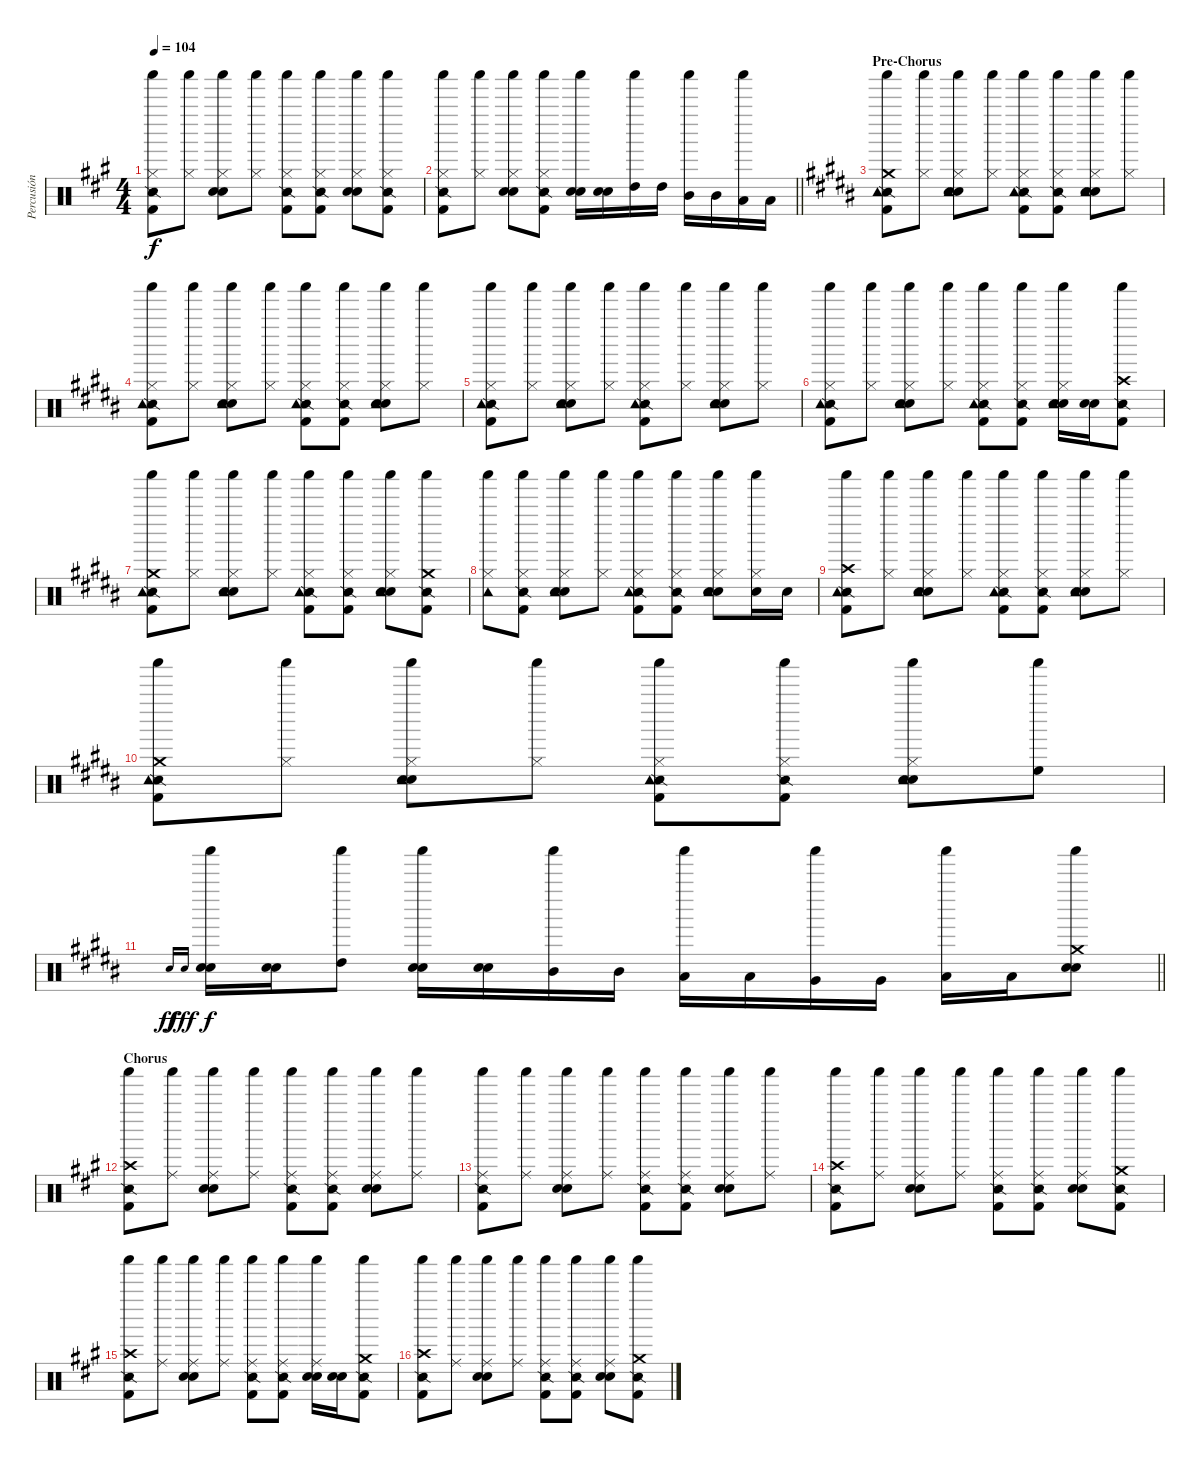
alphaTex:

\track ("Percusión" "Percusión") {instrument percussion}
\staff {score}
\articulation defaults
\ts (4 4)
\tempo 104
\clef neutral
\ks a
("Hi-Hat (closed)" "Kick (hit) 2" "Snare (side stick) 2" "Shaker (hit)").8{dy f} ("Hi-Hat (closed)" "Shaker (hit)").8 ("Hi-Hat (closed)" "Snare (hit) 2" "Electric Snare (hit)" "Shaker (hit)").8 ("Hi-Hat (closed)" "Shaker (hit)").8 ("Hi-Hat (closed)" "Kick (hit) 2" "Snare (side stick) 2" "Shaker (hit)").8 ("Hi-Hat (closed)" "Kick (hit) 2" "Snare (side stick) 2" "Shaker (hit)").8 ("Hi-Hat (closed)" "Snare (hit) 2" "Electric Snare (hit)" "Shaker (hit)").8 ("Hi-Hat (closed)" "Kick (hit) 2" "Snare (side stick) 2" "Shaker (hit)").8 |
\barLineRight lightlight
("Hi-Hat (closed)" "Kick (hit) 2" "Snare (side stick) 2" "Shaker (hit)").8 ("Hi-Hat (closed)" "Shaker (hit)").8 ("Hi-Hat (closed)" "Snare (hit) 2" "Electric Snare (hit)" "Shaker (hit)").8 ("Hi-Hat (closed)" "Kick (hit) 2" "Snare (side stick) 2" "Shaker (hit)").8 ("Snare (hit) 2" "Electric Snare (hit)" "Shaker (hit)").16 ("Snare (hit) 2" "Electric Snare (hit)").16 ("High Tom (hit)" "Shaker (hit)").16 "High Tom (hit)".16 ("Mid Tom (hit)" "Shaker (hit)").16 "Mid Tom (hit)".16 ("Low Tom (hit)" "Shaker (hit)").16 "Low Tom (hit)".16 |
\section ("" "Pre-Chorus")
\ks b
("Crash medium (hit)" "Kick (hit) 2" "Snare (side stick) 2" "Tambourine (hit)" "Shaker (hit)").8 ("Hi-Hat (closed)" "Shaker (hit)").8 ("Hi-Hat (closed)" "Snare (hit) 2" "Electric Snare (hit)" "Tambourine (hit)" "Shaker (hit)").8 ("Hi-Hat (closed)" "Shaker (hit)").8 ("Hi-Hat (closed)" "Kick (hit) 2" "Snare (side stick) 2" "Tambourine (hit)" "Shaker (hit)").8 ("Hi-Hat (closed)" "Kick (hit) 2" "Snare (side stick) 2" "Shaker (hit)").8 ("Hi-Hat (closed)" "Snare (hit) 2" "Electric Snare (hit)" "Tambourine (hit)" "Shaker (hit)").8 ("Hi-Hat (closed)" "Shaker (hit)").8 |
\ks g#minor
("Hi-Hat (closed)" "Kick (hit) 2" "Snare (side stick) 2" "Tambourine (hit)" "Shaker (hit)").8 ("Hi-Hat (closed)" "Shaker (hit)").8 ("Hi-Hat (closed)" "Snare (hit) 2" "Electric Snare (hit)" "Tambourine (hit)" "Shaker (hit)").8 ("Hi-Hat (closed)" "Shaker (hit)").8 ("Hi-Hat (closed)" "Kick (hit) 2" "Snare (side stick) 2" "Tambourine (hit)" "Shaker (hit)").8 ("Hi-Hat (closed)" "Kick (hit) 2" "Snare (side stick) 2" "Shaker (hit)").8 ("Hi-Hat (closed)" "Snare (hit) 2" "Electric Snare (hit)" "Tambourine (hit)" "Shaker (hit)").8 ("Hi-Hat (closed)" "Shaker (hit)").8 |
("Hi-Hat (closed)" "Kick (hit) 2" "Snare (side stick) 2" "Tambourine (hit)" "Shaker (hit)").8 ("Hi-Hat (closed)" "Shaker (hit)").8 ("Hi-Hat (closed)" "Snare (hit) 2" "Electric Snare (hit)" "Tambourine (hit)" "Shaker (hit)").8 ("Hi-Hat (closed)" "Shaker (hit)").8 ("Hi-Hat (closed)" "Kick (hit) 2" "Snare (side stick) 2" "Tambourine (hit)" "Shaker (hit)").8 ("Hi-Hat (closed)" "Shaker (hit)").8 ("Hi-Hat (closed)" "Snare (hit) 2" "Electric Snare (hit)" "Tambourine (hit)" "Shaker (hit)").8 ("Hi-Hat (closed)" "Shaker (hit)").8 |
("Hi-Hat (closed)" "Kick (hit) 2" "Snare (side stick) 2" "Tambourine (hit)" "Shaker (hit)").8 ("Hi-Hat (closed)" "Shaker (hit)").8 ("Hi-Hat (closed)" "Snare (hit) 2" "Electric Snare (hit)" "Tambourine (hit)" "Shaker (hit)").8 ("Hi-Hat (closed)" "Shaker (hit)").8 ("Hi-Hat (closed)" "Kick (hit) 2" "Snare (side stick) 2" "Tambourine (hit)" "Shaker (hit)").8 ("Hi-Hat (closed)" "Kick (hit) 2" "Snare (side stick) 2" "Shaker (hit)").8 ("Hi-Hat (closed)" "Snare (hit) 2" "Electric Snare (hit)" "Tambourine (hit)" "Shaker (hit)").16 ("Snare (hit) 2" "Electric Snare (hit)").16 ("Crash high (hit)" "Kick (hit) 2" "Snare (side stick) 2" "Shaker (hit)").8 |
("Crash medium (hit)" "Kick (hit) 2" "Snare (side stick) 2" "Tambourine (hit)" "Shaker (hit)").8 ("Hi-Hat (closed)" "Shaker (hit)").8 ("Hi-Hat (closed)" "Snare (hit) 2" "Electric Snare (hit)" "Tambourine (hit)" "Shaker (hit)").8 ("Hi-Hat (closed)" "Shaker (hit)").8 ("Hi-Hat (closed)" "Kick (hit) 2" "Snare (side stick) 2" "Tambourine (hit)" "Shaker (hit)").8 ("Hi-Hat (closed)" "Kick (hit) 2" "Snare (side stick) 2" "Shaker (hit)").8 ("Hi-Hat (closed)" "Snare (hit) 2" "Electric Snare (hit)" "Tambourine (hit)" "Shaker (hit)").8 ("Crash medium (hit)" "Kick (hit) 2" "Snare (side stick) 2" "Shaker (hit)").8 |
("Hi-Hat (closed)" "Tambourine (hit)" "Shaker (hit)").8 ("Hi-Hat (closed)" "Kick (hit) 2" "Snare (side stick) 2" "Shaker (hit)").8 ("Hi-Hat (closed)" "Snare (hit) 2" "Electric Snare (hit)" "Tambourine (hit)" "Shaker (hit)").8 ("Hi-Hat (closed)" "Shaker (hit)").8 ("Hi-Hat (closed)" "Kick (hit) 2" "Snare (side stick) 2" "Tambourine (hit)" "Shaker (hit)").8 ("Hi-Hat (closed)" "Kick (hit) 2" "Snare (side stick) 2" "Shaker (hit)").8 ("Hi-Hat (closed)" "Snare (hit) 2" "Electric Snare (hit)" "Tambourine (hit)" "Shaker (hit)").8 ("Hi-Hat (closed)" "Snare (hit) 2" "Shaker (hit)").16 "Snare (hit) 2".16 |
("Crash high (hit)" "Kick (hit) 2" "Snare (side stick) 2" "Tambourine (hit)" "Shaker (hit)").8 ("Hi-Hat (closed)" "Shaker (hit)").8 ("Hi-Hat (closed)" "Snare (hit) 2" "Electric Snare (hit)" "Tambourine (hit)" "Shaker (hit)").8 ("Hi-Hat (closed)" "Shaker (hit)").8 ("Hi-Hat (closed)" "Kick (hit) 2" "Snare (side stick) 2" "Tambourine (hit)" "Shaker (hit)").8 ("Hi-Hat (closed)" "Kick (hit) 2" "Snare (side stick) 2" "Shaker (hit)").8 ("Hi-Hat (closed)" "Snare (hit) 2" "Electric Snare (hit)" "Tambourine (hit)" "Shaker (hit)").8 ("Hi-Hat (closed)" "Shaker (hit)").8 |
("Crash medium (hit)" "Kick (hit) 2" "Snare (side stick) 2" "Tambourine (hit)" "Shaker (hit)").8 ("Hi-Hat (closed)" "Shaker (hit)").8 ("Hi-Hat (closed)" "Snare (hit) 2" "Electric Snare (hit)" "Tambourine (hit)" "Shaker (hit)").8 ("Hi-Hat (closed)" "Shaker (hit)").8 ("Hi-Hat (closed)" "Kick (hit) 2" "Snare (side stick) 2" "Tambourine (hit)" "Shaker (hit)").8 ("Hi-Hat (closed)" "Kick (hit) 2" "Snare (side stick) 2" "Shaker (hit)").8 ("Hi-Hat (closed)" "Snare (hit) 2" "Electric Snare (hit)" "Tambourine (hit)" "Shaker (hit)").8 ("High Floor Tom (hit)" "Shaker (hit)").8 |
\barLineRight lightlight "Snare (hit) 2".16{gr onbeat dy ff} "Electric Snare (hit)".16{gr onbeat dy fff}
("Snare (hit) 2" "Electric Snare (hit)" "Shaker (hit)").16{dy f} ("Snare (hit) 2" "Electric Snare (hit)").16 ("High Tom (hit)" "Shaker (hit)").8 ("Snare (hit) 2" "Electric Snare (hit)" "Shaker (hit)").16 ("Snare (hit) 2" "Electric Snare (hit)").16 ("Mid Tom (hit)" "Shaker (hit)").16 "Mid Tom (hit)".16 ("Low Tom (hit)" "Shaker (hit)").16 "Low Tom (hit)".16 ("Very Low Tom (hit)" "Shaker (hit)").16 "Very Low Tom (hit)".16 ("Low Floor Tom (hit)" "Shaker (hit)").16 "Low Floor Tom (hit)".16 ("Crash medium (hit)" "Snare (hit) 2" "Electric Snare (hit)" "Shaker (hit)").8 |
\section ("" "Chorus")
\ks a
("Crash high (hit)" "Kick (hit) 2" "Snare (side stick) 2" "Shaker (hit)").8 ("Ride (middle)" "Shaker (hit)").8 ("Ride (middle)" "Snare (hit) 2" "Electric Snare (hit)" "Shaker (hit)").8 ("Ride (middle)" "Shaker (hit)").8 ("Ride (middle)" "Kick (hit) 2" "Snare (side stick) 2" "Shaker (hit)").8 ("Ride (middle)" "Kick (hit) 2" "Snare (side stick) 2" "Shaker (hit)").8 ("Ride (middle)" "Snare (hit) 2" "Electric Snare (hit)" "Shaker (hit)").8 ("Ride (middle)" "Shaker (hit)").8 |
("Ride (middle)" "Kick (hit) 2" "Snare (side stick) 2" "Shaker (hit)").8 ("Ride (middle)" "Shaker (hit)").8 ("Ride (middle)" "Snare (hit) 2" "Electric Snare (hit)" "Shaker (hit)").8 ("Ride (middle)" "Shaker (hit)").8 ("Ride (middle)" "Kick (hit) 2" "Snare (side stick) 2" "Shaker (hit)").8 ("Ride (middle)" "Kick (hit) 2" "Snare (side stick) 2" "Shaker (hit)").8 ("Ride (middle)" "Snare (hit) 2" "Electric Snare (hit)" "Shaker (hit)").8 ("Ride (middle)" "Shaker (hit)").8 |
("Crash high (hit)" "Kick (hit) 2" "Snare (side stick) 2" "Shaker (hit)").8 ("Ride (middle)" "Shaker (hit)").8 ("Ride (middle)" "Snare (hit) 2" "Electric Snare (hit)" "Shaker (hit)").8 ("Ride (middle)" "Shaker (hit)").8 ("Ride (middle)" "Kick (hit) 2" "Snare (side stick) 2" "Shaker (hit)").8 ("Ride (middle)" "Kick (hit) 2" "Snare (side stick) 2" "Shaker (hit)").8 ("Ride (middle)" "Snare (hit) 2" "Electric Snare (hit)" "Shaker (hit)").8 ("Crash medium (hit)" "Kick (hit) 2" "Snare (side stick) 2" "Shaker (hit)").8 |
("Crash high (hit)" "Kick (hit) 2" "Snare (side stick) 2" "Shaker (hit)").8 ("Ride (middle)" "Shaker (hit)").8 ("Ride (middle)" "Snare (hit) 2" "Electric Snare (hit)" "Shaker (hit)").8 ("Ride (middle)" "Shaker (hit)").8 ("Ride (middle)" "Kick (hit) 2" "Snare (side stick) 2" "Shaker (hit)").8 ("Ride (middle)" "Kick (hit) 2" "Snare (side stick) 2" "Shaker (hit)").8 ("Ride (middle)" "Snare (hit) 2" "Electric Snare (hit)" "Shaker (hit)").16 ("Snare (hit) 2" "Electric Snare (hit)").16 ("Crash medium (hit)" "Kick (hit) 2" "Snare (side stick) 2" "Shaker (hit)").8 |
("Crash high (hit)" "Kick (hit) 2" "Snare (side stick) 2" "Shaker (hit)").8 ("Ride (middle)" "Shaker (hit)").8 ("Ride (middle)" "Snare (hit) 2" "Electric Snare (hit)" "Shaker (hit)").8 ("Ride (middle)" "Shaker (hit)").8 ("Ride (middle)" "Kick (hit) 2" "Snare (side stick) 2" "Shaker (hit)").8 ("Ride (middle)" "Kick (hit) 2" "Snare (side stick) 2" "Shaker (hit)").8 ("Ride (middle)" "Snare (hit) 2" "Electric Snare (hit)" "Shaker (hit)").8 ("Crash medium (hit)" "Kick (hit) 2" "Snare (side stick) 2" "Shaker (hit)").8
